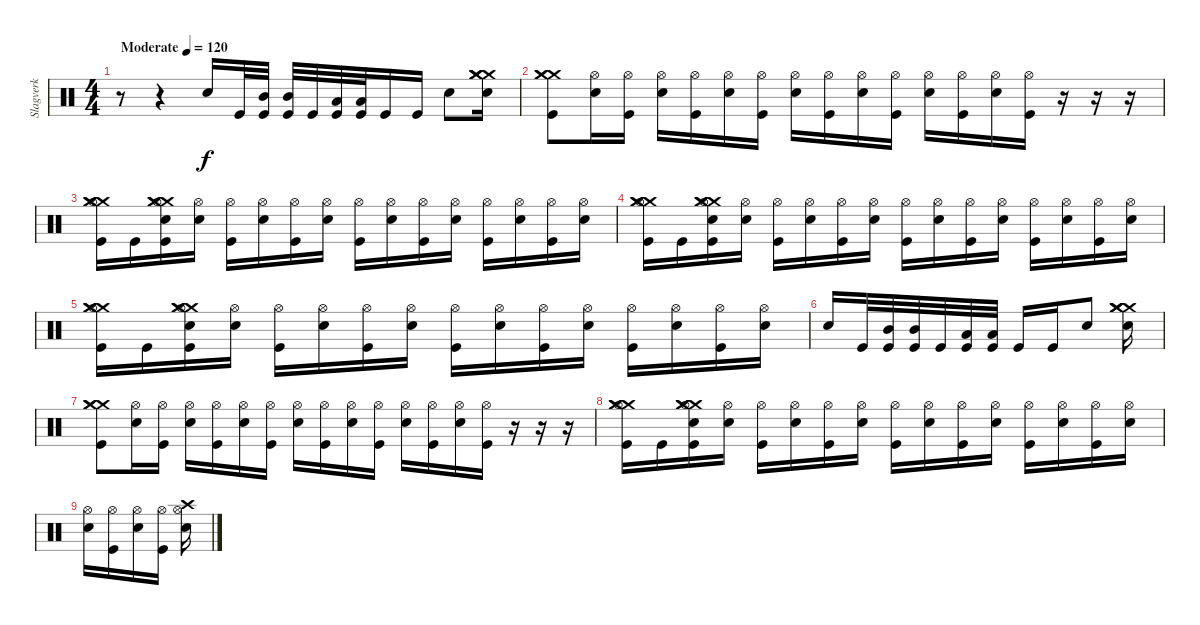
\track ("Slagverk" "Slagverk") {instrument percussion}
\staff {score}
\articulation defaults
\ts (4 4)
\tempo (120 "Moderate")
\clef neutral
\ks c
r.8{dy f} r.4 "Electric Snare (hit)".16 "Kick (hit)".32 ("Mid Tom (hit)" "Kick (hit)").32 ("Mid Tom (hit)" "Kick (hit)").32 "Kick (hit)".32 ("Low Tom (hit)" "Kick (hit)").32 ("Low Tom (hit)" "Kick (hit)").32 "Kick (hit)".16 "Kick (hit)".16 "Electric Snare (hit)".8 ("Crash medium (hit)" "Crash medium (hit)" "Crash medium (hit)" "Electric Snare (hit)" "Crash medium (hit)").16 |
("Crash medium (hit)" "Crash medium (hit)" "Crash medium (hit)" "Kick (hit)").8 ("Hi-Hat (open)" "Electric Snare (hit)").16 ("Hi-Hat (open)" "Kick (hit)").16 ("Hi-Hat (open)" "Electric Snare (hit)").16 ("Hi-Hat (open)" "Kick (hit)").16 ("Hi-Hat (open)" "Electric Snare (hit)").16 ("Hi-Hat (open)" "Kick (hit)").16 ("Hi-Hat (open)" "Electric Snare (hit)").16 ("Hi-Hat (open)" "Kick (hit)").16 ("Hi-Hat (open)" "Electric Snare (hit)").16 ("Hi-Hat (open)" "Kick (hit)").16 ("Hi-Hat (open)" "Electric Snare (hit)").16 ("Hi-Hat (open)" "Kick (hit)").16 ("Hi-Hat (open)" "Electric Snare (hit)").16 ("Hi-Hat (open)" "Kick (hit)").16 r.16 r.16 r.16 |
("Crash medium (hit)" "Crash medium (hit)" "Crash medium (hit)" "Hi-Hat (open)" "Kick (hit)").16 "Kick (hit)".16 ("Crash medium (hit)" "Crash medium (hit)" "Crash medium (hit)" "Hi-Hat (open)" "Electric Snare (hit)" "Kick (hit)").16 ("Hi-Hat (open)" "Electric Snare (hit)").16 ("Hi-Hat (open)" "Kick (hit)").16 ("Hi-Hat (open)" "Electric Snare (hit)").16 ("Hi-Hat (open)" "Kick (hit)").16 ("Hi-Hat (open)" "Electric Snare (hit)").16 ("Hi-Hat (open)" "Kick (hit)").16 ("Hi-Hat (open)" "Electric Snare (hit)").16 ("Hi-Hat (open)" "Kick (hit)").16 ("Hi-Hat (open)" "Electric Snare (hit)").16 ("Hi-Hat (open)" "Kick (hit)").16 ("Hi-Hat (open)" "Electric Snare (hit)").16 ("Hi-Hat (open)" "Kick (hit)").16 ("Hi-Hat (open)" "Electric Snare (hit)").16 |
("Crash medium (hit)" "Crash medium (hit)" "Crash medium (hit)" "Hi-Hat (open)" "Kick (hit)").16 "Kick (hit)".16 ("Crash medium (hit)" "Crash medium (hit)" "Crash medium (hit)" "Hi-Hat (open)" "Electric Snare (hit)" "Kick (hit)").16 ("Hi-Hat (open)" "Electric Snare (hit)").16 ("Hi-Hat (open)" "Kick (hit)").16 ("Hi-Hat (open)" "Electric Snare (hit)").16 ("Hi-Hat (open)" "Kick (hit)").16 ("Hi-Hat (open)" "Electric Snare (hit)").16 ("Hi-Hat (open)" "Kick (hit)").16 ("Hi-Hat (open)" "Electric Snare (hit)").16 ("Hi-Hat (open)" "Kick (hit)").16 ("Hi-Hat (open)" "Electric Snare (hit)").16 ("Hi-Hat (open)" "Kick (hit)").16 ("Hi-Hat (open)" "Electric Snare (hit)").16 ("Hi-Hat (open)" "Kick (hit)").16 ("Hi-Hat (open)" "Electric Snare (hit)").16 |
("Crash medium (hit)" "Crash medium (hit)" "Crash medium (hit)" "Hi-Hat (open)" "Kick (hit)").16 "Kick (hit)".16 ("Crash medium (hit)" "Crash medium (hit)" "Crash medium (hit)" "Hi-Hat (open)" "Electric Snare (hit)" "Kick (hit)").16 ("Hi-Hat (open)" "Electric Snare (hit)").16 ("Hi-Hat (open)" "Kick (hit)").16 ("Hi-Hat (open)" "Electric Snare (hit)").16 ("Hi-Hat (open)" "Kick (hit)").16 ("Hi-Hat (open)" "Electric Snare (hit)").16 ("Hi-Hat (open)" "Kick (hit)").16 ("Hi-Hat (open)" "Electric Snare (hit)").16 ("Hi-Hat (open)" "Kick (hit)").16 ("Hi-Hat (open)" "Electric Snare (hit)").16 ("Hi-Hat (open)" "Kick (hit)").16 ("Hi-Hat (open)" "Electric Snare (hit)").16 ("Hi-Hat (open)" "Kick (hit)").16 ("Hi-Hat (open)" "Electric Snare (hit)").16 |
"Electric Snare (hit)".16 "Kick (hit)".32 ("Mid Tom (hit)" "Kick (hit)").32 ("Mid Tom (hit)" "Kick (hit)").32 "Kick (hit)".32 ("Low Tom (hit)" "Kick (hit)").32 ("Low Tom (hit)" "Kick (hit)").32 "Kick (hit)".16 "Kick (hit)".16 "Electric Snare (hit)".8 ("Crash medium (hit)" "Crash medium (hit)" "Crash medium (hit)" "Electric Snare (hit)" "Crash medium (hit)").16 |
("Crash medium (hit)" "Crash medium (hit)" "Crash medium (hit)" "Kick (hit)").8 ("Hi-Hat (open)" "Electric Snare (hit)").16 ("Hi-Hat (open)" "Kick (hit)").16 ("Hi-Hat (open)" "Electric Snare (hit)").16 ("Hi-Hat (open)" "Kick (hit)").16 ("Hi-Hat (open)" "Electric Snare (hit)").16 ("Hi-Hat (open)" "Kick (hit)").16 ("Hi-Hat (open)" "Electric Snare (hit)").16 ("Hi-Hat (open)" "Kick (hit)").16 ("Hi-Hat (open)" "Electric Snare (hit)").16 ("Hi-Hat (open)" "Kick (hit)").16 ("Hi-Hat (open)" "Electric Snare (hit)").16 ("Hi-Hat (open)" "Kick (hit)").16 ("Hi-Hat (open)" "Electric Snare (hit)").16 ("Hi-Hat (open)" "Kick (hit)").16 r.16 r.16 r.16 |
("Crash medium (hit)" "Crash medium (hit)" "Crash medium (hit)" "Hi-Hat (open)" "Kick (hit)").16 "Kick (hit)".16 ("Crash medium (hit)" "Crash medium (hit)" "Crash medium (hit)" "Hi-Hat (open)" "Electric Snare (hit)" "Kick (hit)").16 ("Hi-Hat (open)" "Electric Snare (hit)").16 ("Hi-Hat (open)" "Kick (hit)").16 ("Hi-Hat (open)" "Electric Snare (hit)").16 ("Hi-Hat (open)" "Kick (hit)").16 ("Hi-Hat (open)" "Electric Snare (hit)").16 ("Hi-Hat (open)" "Kick (hit)").16 ("Hi-Hat (open)" "Electric Snare (hit)").16 ("Hi-Hat (open)" "Kick (hit)").16 ("Hi-Hat (open)" "Electric Snare (hit)").16 ("Hi-Hat (open)" "Kick (hit)").16 ("Hi-Hat (open)" "Electric Snare (hit)").16 ("Hi-Hat (open)" "Kick (hit)").16 ("Hi-Hat (open)" "Electric Snare (hit)").16 |
("Hi-Hat (open)" "Electric Snare (hit)").16 ("Hi-Hat (open)" "Kick (hit)").16 ("Hi-Hat (open)" "Electric Snare (hit)").16 ("Hi-Hat (open)" "Kick (hit)").16 ("Crash high (hit)" "Hi-Hat (open)" "Electric Snare (hit)").16
